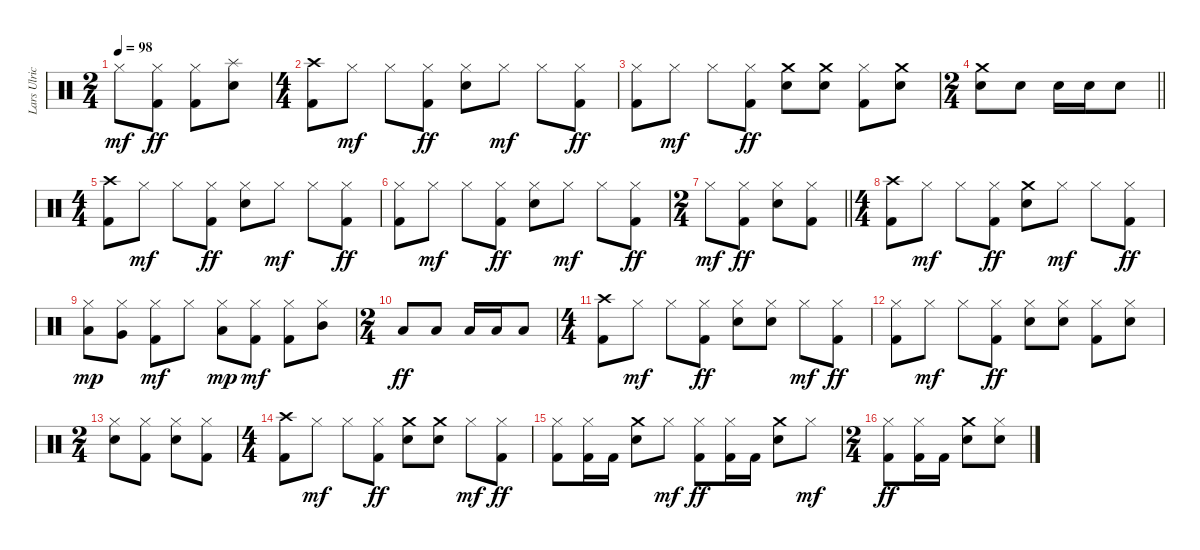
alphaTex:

\track ("Lars Ulrich" "Lars Ulric") {instrument percussion}
\staff {score}
\articulation defaults
\ts (2 4)
\tempo 98
\clef neutral
\ks c "Hi-Hat (closed)".8{dy mf}
("Hi-Hat (closed)" "Kick (hit) 2").8{dy ff} ("Hi-Hat (closed)" "Kick (hit) 2").8 ("Splash (hit)" "Snare (hit) 2").8 |
\ts (4 4)
("Crash high (hit)" "Kick (hit) 2").8 "Hi-Hat (closed)".8{dy mf} "Hi-Hat (closed)".8 ("Hi-Hat (closed)" "Kick (hit) 2").8{dy ff} ("Hi-Hat (closed)" "Snare (hit) 2").8 "Hi-Hat (closed)".8{dy mf} "Hi-Hat (closed)".8 ("Hi-Hat (closed)" "Kick (hit) 2").8{dy ff} |
("Hi-Hat (closed)" "Kick (hit) 2").8 "Hi-Hat (closed)".8{dy mf} "Hi-Hat (closed)".8 ("Hi-Hat (closed)" "Kick (hit) 2").8{dy ff} ("Crash medium (hit)" "Snare (hit) 2").8 ("Crash medium (hit)" "Snare (hit) 2").8 ("Hi-Hat (closed)" "Kick (hit) 2").8 ("Crash medium (hit)" "Snare (hit) 2").8 |
\ts (2 4)
\barLineRight lightlight
("Crash medium (hit)" "Snare (hit) 2").8 "Snare (hit) 2".8 "Snare (hit) 2".16 "Snare (hit) 2".16 "Snare (hit) 2".8 |
\ts (4 4)
("Crash high (hit)" "Kick (hit) 2").8 "Hi-Hat (closed)".8{dy mf} "Hi-Hat (closed)".8 ("Hi-Hat (closed)" "Kick (hit) 2").8{dy ff} ("Hi-Hat (closed)" "Snare (hit) 2").8 "Hi-Hat (closed)".8{dy mf} "Hi-Hat (closed)".8 ("Hi-Hat (closed)" "Kick (hit) 2").8{dy ff} |
("Hi-Hat (closed)" "Kick (hit) 2").8 "Hi-Hat (closed)".8{dy mf} "Hi-Hat (closed)".8 ("Hi-Hat (closed)" "Kick (hit) 2").8{dy ff} ("Hi-Hat (closed)" "Snare (hit) 2").8 "Hi-Hat (closed)".8{dy mf} "Hi-Hat (closed)".8 ("Hi-Hat (closed)" "Kick (hit) 2").8{dy ff} |
\ts (2 4)
\barLineRight lightlight "Hi-Hat (closed)".8{dy mf}
("Hi-Hat (closed)" "Kick (hit) 2").8{dy ff} ("Hi-Hat (closed)" "Snare (hit) 2").8 ("Hi-Hat (closed)" "Kick (hit) 2").8 |
\ts (4 4)
("Crash high (hit)" "Kick (hit) 2").8 "Hi-Hat (closed)".8{dy mf} "Hi-Hat (closed)".8 ("Hi-Hat (closed)" "Kick (hit) 2").8{dy ff} ("Crash medium (hit)" "Snare (hit) 2").8 "Hi-Hat (closed)".8{dy mf} "Hi-Hat (closed)".8 ("Hi-Hat (closed)" "Kick (hit) 2").8{dy ff} |
("Hi-Hat (closed)" "Low Tom (hit)").8{dy mp} ("Hi-Hat (closed)" "Very Low Tom (hit)").8 ("Hi-Hat (closed)" "Kick (hit) 2").8{dy mf} "Hi-Hat (closed)".8 ("Hi-Hat (closed)" "Low Floor Tom (hit)").8{dy mp} ("Hi-Hat (closed)" "Kick (hit) 2").8{dy mf} ("Hi-Hat (closed)" "Kick (hit) 2").8 ("Hi-Hat (closed)" "Mid Tom (hit)").8 |
\ts (2 4)
"Low Tom (hit)".8{dy ff} "Low Tom (hit)".8 "Low Floor Tom (hit)".16 "Low Floor Tom (hit)".16 "Low Floor Tom (hit)".8 |
\ts (4 4)
("Crash high (hit)" "Kick (hit) 2").8 "Hi-Hat (closed)".8{dy mf} "Hi-Hat (closed)".8 ("Hi-Hat (closed)" "Kick (hit) 2").8{dy ff} ("Hi-Hat (closed)" "Snare (hit) 2").8 ("Hi-Hat (closed)" "Snare (hit) 2").8 "Hi-Hat (closed)".8{dy mf} ("Hi-Hat (closed)" "Kick (hit) 2").8{dy ff} |
("Hi-Hat (closed)" "Kick (hit) 2").8 "Hi-Hat (closed)".8{dy mf} "Hi-Hat (closed)".8 ("Hi-Hat (closed)" "Kick (hit) 2").8{dy ff} ("Hi-Hat (closed)" "Snare (hit) 2").8 ("Hi-Hat (closed)" "Snare (hit) 2").8 ("Hi-Hat (closed)" "Kick (hit) 2").8 ("Hi-Hat (closed)" "Snare (hit) 2").8 |
\ts (2 4)
("Hi-Hat (closed)" "Snare (hit) 2").8 ("Hi-Hat (closed)" "Kick (hit) 2").8 ("Hi-Hat (closed)" "Snare (hit) 2").8 ("Hi-Hat (closed)" "Kick (hit) 2").8 |
\ts (4 4)
("Crash high (hit)" "Kick (hit) 2").8 "Hi-Hat (closed)".8{dy mf} "Hi-Hat (closed)".8 ("Hi-Hat (closed)" "Kick (hit) 2").8{dy ff} ("Crash medium (hit)" "Snare (hit) 2").8 ("Crash medium (hit)" "Snare (hit) 2").8 "Hi-Hat (closed)".8{dy mf} ("Hi-Hat (closed)" "Kick (hit) 2").8{dy ff} |
("Hi-Hat (closed)" "Kick (hit) 2").8 ("Hi-Hat (closed)" "Kick (hit) 2").16 "Kick (hit) 2".16 ("Crash medium (hit)" "Snare (hit) 2").8 "Hi-Hat (closed)".8{dy mf} ("Hi-Hat (closed)" "Kick (hit) 2").8{dy ff} ("Hi-Hat (closed)" "Kick (hit) 2").16 "Kick (hit) 2".16 ("Crash medium (hit)" "Snare (hit) 2").8 "Hi-Hat (closed)".8{dy mf} |
\ts (2 4)
("Hi-Hat (closed)" "Kick (hit) 2").8{dy ff} ("Hi-Hat (closed)" "Kick (hit) 2").16 "Kick (hit) 2".16 ("Crash medium (hit)" "Snare (hit) 2").8 ("Hi-Hat (closed)" "Snare (hit) 2").8
